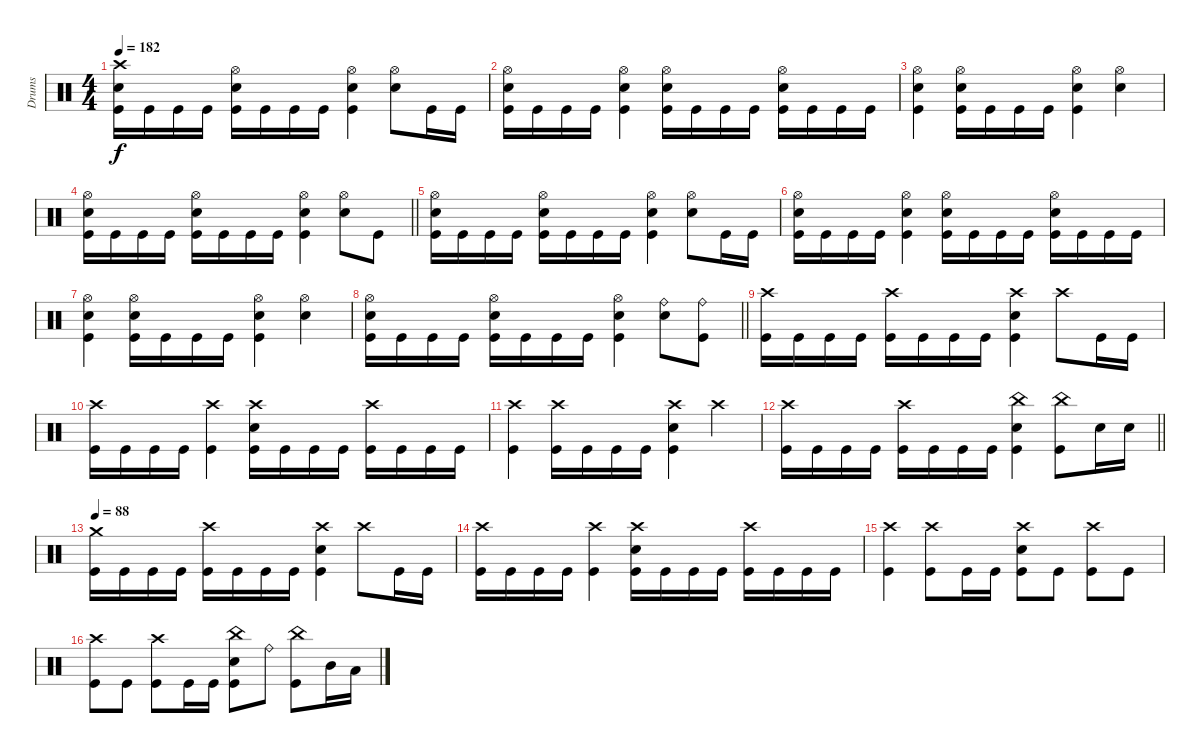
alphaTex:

\track ("Drums" "Drums") {instrument percussion}
\staff
\articulation defaults
\ts (4 4)
\section ("" "")
\tempo 182
\clef neutral
\ks c
("Crash high (hit)" "Electric Snare (hit)" "Kick (hit)").16{dy f} "Kick (hit)".16 "Kick (hit)".16 "Kick (hit)".16 ("Hi-Hat (open)" "Electric Snare (hit)" "Kick (hit)").16 "Kick (hit)".16 "Kick (hit)".16 "Kick (hit)".16 ("Hi-Hat (open)" "Electric Snare (hit)" "Kick (hit)").4 ("Hi-Hat (open)" "Electric Snare (hit)").8 "Kick (hit)".16 "Kick (hit)".16 |
("Hi-Hat (open)" "Electric Snare (hit)" "Kick (hit)").16 "Kick (hit)".16 "Kick (hit)".16 "Kick (hit)".16 ("Hi-Hat (open)" "Electric Snare (hit)" "Kick (hit)").4 ("Hi-Hat (open)" "Electric Snare (hit)" "Kick (hit)").16 "Kick (hit)".16 "Kick (hit)".16 "Kick (hit)".16 ("Hi-Hat (open)" "Electric Snare (hit)" "Kick (hit)").16 "Kick (hit)".16 "Kick (hit)".16 "Kick (hit)".16 |
("Hi-Hat (open)" "Electric Snare (hit)" "Kick (hit)").4 ("Hi-Hat (open)" "Electric Snare (hit)" "Kick (hit)").16 "Kick (hit)".16 "Kick (hit)".16 "Kick (hit)".16 ("Hi-Hat (open)" "Electric Snare (hit)" "Kick (hit)").4 ("Hi-Hat (open)" "Electric Snare (hit)").4 |
\barLineRight lightlight
("Hi-Hat (open)" "Electric Snare (hit)" "Kick (hit)").16 "Kick (hit)".16 "Kick (hit)".16 "Kick (hit)".16 ("Hi-Hat (open)" "Electric Snare (hit)" "Kick (hit)").16 "Kick (hit)".16 "Kick (hit)".16 "Kick (hit)".16 ("Hi-Hat (open)" "Electric Snare (hit)" "Kick (hit)").4 ("Hi-Hat (open)" "Electric Snare (hit)").8 "Kick (hit)".8 |
("Hi-Hat (open)" "Electric Snare (hit)" "Kick (hit)").16 "Kick (hit)".16 "Kick (hit)".16 "Kick (hit)".16 ("Hi-Hat (open)" "Electric Snare (hit)" "Kick (hit)").16 "Kick (hit)".16 "Kick (hit)".16 "Kick (hit)".16 ("Hi-Hat (open)" "Electric Snare (hit)" "Kick (hit)").4 ("Hi-Hat (open)" "Electric Snare (hit)").8 "Kick (hit)".16 "Kick (hit)".16 |
("Hi-Hat (open)" "Electric Snare (hit)" "Kick (hit)").16 "Kick (hit)".16 "Kick (hit)".16 "Kick (hit)".16 ("Hi-Hat (open)" "Electric Snare (hit)" "Kick (hit)").4 ("Hi-Hat (open)" "Electric Snare (hit)" "Kick (hit)").16 "Kick (hit)".16 "Kick (hit)".16 "Kick (hit)".16 ("Hi-Hat (open)" "Electric Snare (hit)" "Kick (hit)").16 "Kick (hit)".16 "Kick (hit)".16 "Kick (hit)".16 |
("Hi-Hat (open)" "Electric Snare (hit)" "Kick (hit)").4 ("Hi-Hat (open)" "Electric Snare (hit)" "Kick (hit)").16 "Kick (hit)".16 "Kick (hit)".16 "Kick (hit)".16 ("Hi-Hat (open)" "Electric Snare (hit)" "Kick (hit)").4 ("Hi-Hat (open)" "Electric Snare (hit)").4 |
\barLineRight lightlight
("Hi-Hat (open)" "Electric Snare (hit)" "Kick (hit)").16 "Kick (hit)".16 "Kick (hit)".16 "Kick (hit)".16 ("Hi-Hat (open)" "Electric Snare (hit)" "Kick (hit)").16 "Kick (hit)".16 "Kick (hit)".16 "Kick (hit)".16 ("Hi-Hat (open)" "Electric Snare (hit)" "Kick (hit)").4 ("Ride (bell)" "Electric Snare (hit)").8 ("Ride (bell)" "Kick (hit)").8 |
("Crash high (hit)" "Kick (hit)").16 "Kick (hit)".16 "Kick (hit)".16 "Kick (hit)".16 ("Crash high (hit)" "Kick (hit)").16 "Kick (hit)".16 "Kick (hit)".16 "Kick (hit)".16 ("Crash high (hit)" "Electric Snare (hit)" "Kick (hit)").4 "Crash high (hit)".8 "Kick (hit)".16 "Kick (hit)".16 |
("Crash high (hit)" "Kick (hit)").16 "Kick (hit)".16 "Kick (hit)".16 "Kick (hit)".16 ("Crash high (hit)" "Kick (hit)").4 ("Crash high (hit)" "Electric Snare (hit)" "Kick (hit)").16 "Kick (hit)".16 "Kick (hit)".16 "Kick (hit)".16 ("Crash high (hit)" "Kick (hit)").16 "Kick (hit)".16 "Kick (hit)".16 "Kick (hit)".16 |
("Crash high (hit)" "Kick (hit)").4 ("Crash high (hit)" "Kick (hit)").16 "Kick (hit)".16 "Kick (hit)".16 "Kick (hit)".16 ("Crash high (hit)" "Electric Snare (hit)" "Kick (hit)").4 "Crash high (hit)".4 |
\barLineRight lightlight
("Crash high (hit)" "Kick (hit)").16 "Kick (hit)".16 "Kick (hit)".16 "Kick (hit)".16 ("Crash high (hit)" "Kick (hit)").16 "Kick (hit)".16 "Kick (hit)".16 "Kick (hit)".16 ("China (hit)" "Electric Snare (hit)" "Kick (hit)").4 ("China (hit)" "Kick (hit)").8 "Electric Snare (hit)".16 "Electric Snare (hit)".16 |
\tempo 88
("Crash medium (hit)" "Kick (hit)").16 "Kick (hit)".16 "Kick (hit)".16 "Kick (hit)".16 ("Crash high (hit)" "Kick (hit)").16 "Kick (hit)".16 "Kick (hit)".16 "Kick (hit)".16 ("Crash high (hit)" "Electric Snare (hit)" "Kick (hit)").4 "Crash high (hit)".8 "Kick (hit)".16 "Kick (hit)".16 |
("Crash high (hit)" "Kick (hit)").16 "Kick (hit)".16 "Kick (hit)".16 "Kick (hit)".16 ("Crash high (hit)" "Kick (hit)").4 ("Crash high (hit)" "Electric Snare (hit)" "Kick (hit)").16 "Kick (hit)".16 "Kick (hit)".16 "Kick (hit)".16 ("Crash high (hit)" "Kick (hit)").16 "Kick (hit)".16 "Kick (hit)".16 "Kick (hit)".16 |
("Crash high (hit)" "Kick (hit)").4 ("Crash high (hit)" "Kick (hit)").8 "Kick (hit)".16 "Kick (hit)".16 ("Crash high (hit)" "Electric Snare (hit)" "Kick (hit)").8 "Kick (hit)".8 ("Crash high (hit)" "Kick (hit)").8 "Kick (hit)".8 |
("Crash high (hit)" "Kick (hit)").8 "Kick (hit)".8 ("Crash high (hit)" "Kick (hit)").8 "Kick (hit)".16 "Kick (hit)".16 ("China (hit)" "Electric Snare (hit)" "Kick (hit)").8 "Ride (bell)".8 ("China (hit)" "Kick (hit)").8 "Mid Tom (hit)".16 "Low Tom (hit)".16
